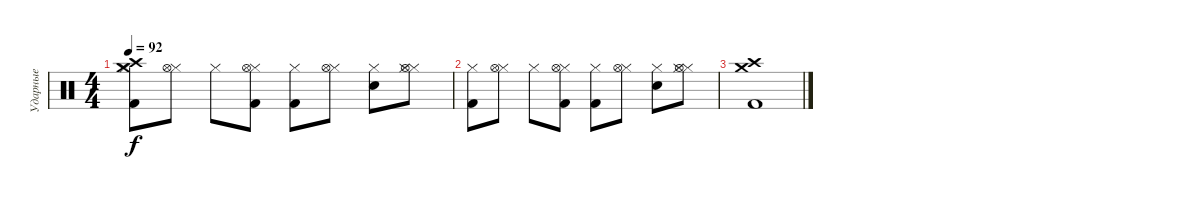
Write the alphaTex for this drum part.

\track ("Ударные" "Ударные") {instrument percussion}
\staff {score}
\articulation defaults
\ts (4 4)
\tempo 92
\clef neutral
\ks c
("Kick (hit) 2" "Hi-Hat (closed)" "Crash high (hit)" "Crash medium (hit)").8{dy f} ("Hi-Hat (closed)" "Hi-Hat (open)").8 "Hi-Hat (closed)".8 ("Kick (hit) 2" "Hi-Hat (closed)" "Hi-Hat (open)").8 ("Kick (hit) 2" "Hi-Hat (closed)").8 ("Hi-Hat (closed)" "Hi-Hat (open)").8 ("Snare (hit) 2" "Hi-Hat (closed)").8 ("Hi-Hat (closed)" "Hi-Hat (closed)" "Hi-Hat (open)").8 |
("Kick (hit) 2" "Hi-Hat (closed)").8 ("Hi-Hat (closed)" "Hi-Hat (open)").8 "Hi-Hat (closed)".8 ("Kick (hit) 2" "Hi-Hat (closed)" "Hi-Hat (open)").8 ("Kick (hit) 2" "Hi-Hat (closed)").8 ("Hi-Hat (closed)" "Hi-Hat (open)").8 ("Snare (hit) 2" "Hi-Hat (closed)").8 ("Hi-Hat (closed)" "Hi-Hat (closed)" "Hi-Hat (open)").8 |
("Kick (hit) 2" "Crash high (hit)" "Crash medium (hit)").1
